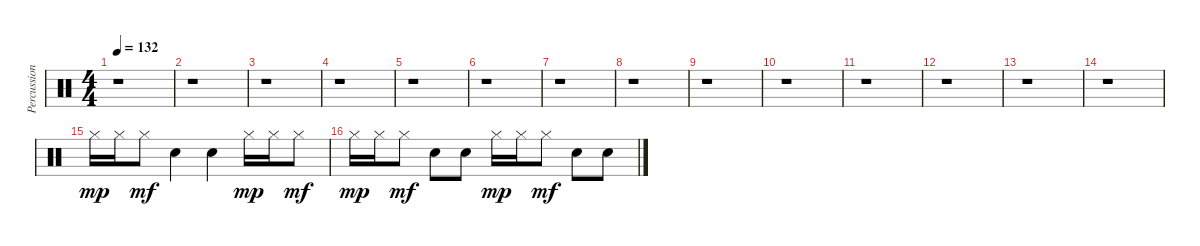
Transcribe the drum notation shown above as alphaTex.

\track ("Percussion" "Percussion") {instrument percussion}
\staff {score}
\articulation defaults
\ts (4 4)
\tempo 132
\clef neutral
\ks c
r.1{dy f} |
r.1 |
r.1 |
r.1 |
r.1 |
r.1 |
r.1 |
r.1 |
r.1 |
r.1 |
r.1 |
r.1 |
r.1 |
r.1 |
"Hi-Hat (closed)".16{dy mp} "Hi-Hat (closed)".16 "Hi-Hat (closed)".8{dy mf} "Hand Clap (hit)".4 "Hand Clap (hit)".4 "Hi-Hat (closed)".16{dy mp} "Hi-Hat (closed)".16 "Hi-Hat (closed)".8{dy mf} |
"Hi-Hat (closed)".16{dy mp} "Hi-Hat (closed)".16 "Hi-Hat (closed)".8{dy mf} "Hand Clap (hit)".8 "Hand Clap (hit)".8 "Hi-Hat (closed)".16{dy mp} "Hi-Hat (closed)".16 "Hi-Hat (closed)".8{dy mf} "Hand Clap (hit)".8 "Hand Clap (hit)".8
